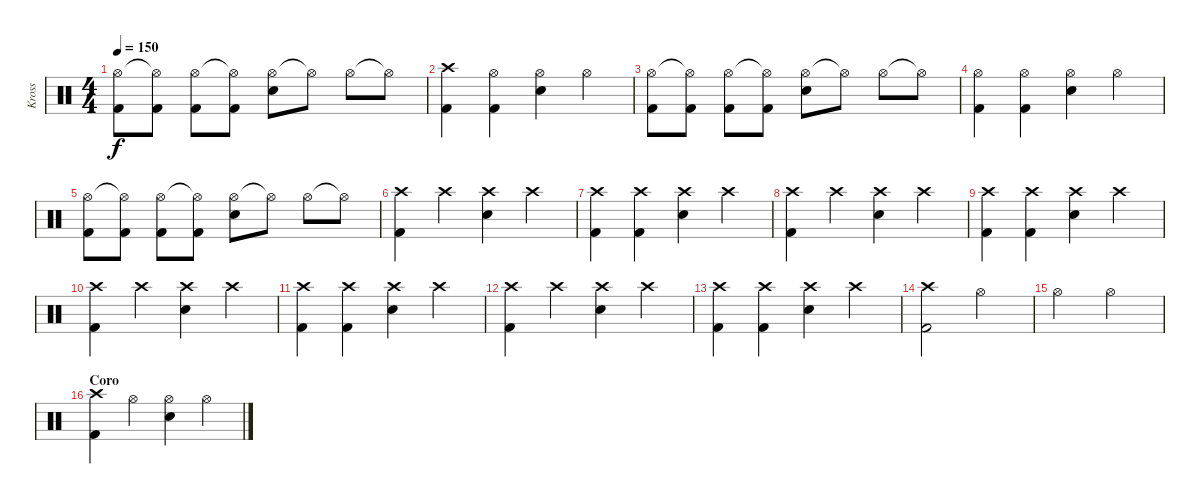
\track ("Kross" "Kross") {instrument percussion}
\staff {score}
\articulation defaults
\ts (4 4)
\tempo 150
\clef neutral
\ks c
("Hi-Hat (open)" "Kick (hit) 2").8{dy f} ("Hi-Hat (open)"{t} "Kick (hit) 2").8 ("Hi-Hat (open)" "Kick (hit) 2").8 ("Hi-Hat (open)"{t} "Kick (hit) 2").8 ("Hi-Hat (open)" "Snare (hit) 2").8 "Hi-Hat (open)"{t}.8 "Hi-Hat (open)".8 "Hi-Hat (open)"{t}.8 |
("Crash high (hit)" "Kick (hit) 2").4 ("Hi-Hat (open)" "Kick (hit) 2").4 ("Hi-Hat (open)" "Snare (hit) 2").4 "Hi-Hat (open)".4 |
("Hi-Hat (open)" "Kick (hit) 2").8 ("Hi-Hat (open)"{t} "Kick (hit) 2").8 ("Hi-Hat (open)" "Kick (hit) 2").8 ("Hi-Hat (open)"{t} "Kick (hit) 2").8 ("Hi-Hat (open)" "Snare (hit) 2").8 "Hi-Hat (open)"{t}.8 "Hi-Hat (open)".8 "Hi-Hat (open)"{t}.8 |
("Hi-Hat (open)" "Kick (hit) 2").4 ("Hi-Hat (open)" "Kick (hit) 2").4 ("Hi-Hat (open)" "Snare (hit) 2").4 "Hi-Hat (open)".4 |
("Hi-Hat (open)" "Kick (hit) 2").8 ("Hi-Hat (open)"{t} "Kick (hit) 2").8 ("Hi-Hat (open)" "Kick (hit) 2").8 ("Hi-Hat (open)"{t} "Kick (hit) 2").8 ("Hi-Hat (open)" "Snare (hit) 2").8 "Hi-Hat (open)"{t}.8 "Hi-Hat (open)".8 "Hi-Hat (open)"{t}.8 |
("Crash high (hit)" "Kick (hit) 2").4 "Crash high (hit)".4 ("Crash high (hit)" "Snare (hit) 2").4 "Crash high (hit)".4 |
("Crash high (hit)" "Kick (hit) 2").4 ("Crash high (hit)" "Kick (hit) 2").4 ("Crash high (hit)" "Snare (hit) 2").4 "Crash high (hit)".4 |
("Crash high (hit)" "Kick (hit) 2").4 "Crash high (hit)".4 ("Crash high (hit)" "Snare (hit) 2").4 "Crash high (hit)".4 |
("Crash high (hit)" "Kick (hit) 2").4 ("Crash high (hit)" "Kick (hit) 2").4 ("Crash high (hit)" "Snare (hit) 2").4 "Crash high (hit)".4 |
("Crash high (hit)" "Kick (hit) 2").4 "Crash high (hit)".4 ("Crash high (hit)" "Snare (hit) 2").4 "Crash high (hit)".4 |
("Crash high (hit)" "Kick (hit) 2").4 ("Crash high (hit)" "Kick (hit) 2").4 ("Crash high (hit)" "Snare (hit) 2").4 "Crash high (hit)".4 |
("Crash high (hit)" "Kick (hit) 2").4 "Crash high (hit)".4 ("Crash high (hit)" "Snare (hit) 2").4 "Crash high (hit)".4 |
("Crash high (hit)" "Kick (hit) 2").4 ("Crash high (hit)" "Kick (hit) 2").4 ("Crash high (hit)" "Snare (hit) 2").4 "Crash high (hit)".4 |
("Crash high (hit)" "Kick (hit) 2").2 "Hi-Hat (open)".2 |
"Hi-Hat (open)".2 "Hi-Hat (open)".2 |
\section ("" "Coro")
("Crash high (hit)" "Kick (hit) 2").4 "Hi-Hat (open)".4 ("Hi-Hat (open)" "Snare (hit) 2").4 "Hi-Hat (open)".4
